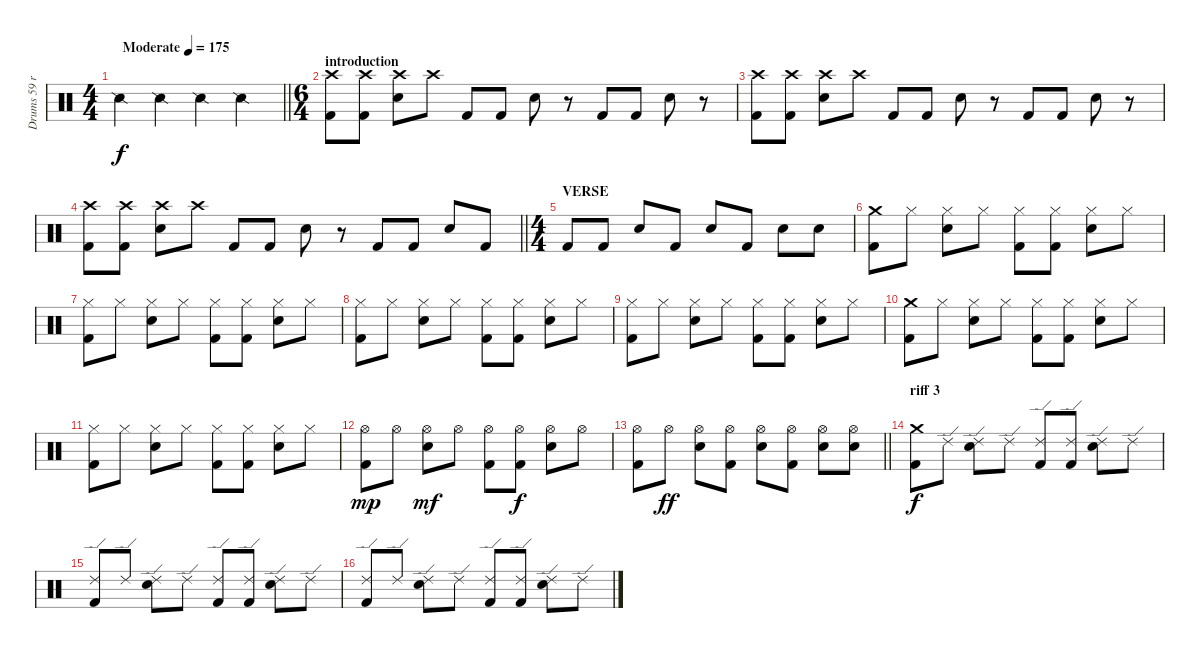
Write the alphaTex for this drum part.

\track ("Drums 59 ride" "Drums 59 r") {instrument percussion}
\staff {score}
\articulation defaults
\ts (4 4)
\tempo (175 "Moderate")
\clef neutral
\barLineRight lightlight
\ks c "Snare (side stick) 2".4{dy f} "Snare (side stick) 2".4 "Snare (side stick) 2".4 "Snare (side stick) 2".4
|
\ts (6 4)
\section ("" "introduction")
("Crash high (hit)" "Kick (hit) 2").8 ("Crash high (hit)" "Kick (hit) 2").8 ("Crash high (hit)" "Snare (hit) 2").8 "Crash high (hit)".8 "Kick (hit) 2".8 "Kick (hit) 2".8 "Snare (hit) 2".8 r.8 "Kick (hit) 2".8 "Kick (hit) 2".8 "Snare (hit) 2".8 r.8 |
("Crash high (hit)" "Kick (hit) 2").8 ("Crash high (hit)" "Kick (hit) 2").8 ("Crash high (hit)" "Snare (hit) 2").8 "Crash high (hit)".8 "Kick (hit) 2".8 "Kick (hit) 2".8 "Snare (hit) 2".8 r.8 "Kick (hit) 2".8 "Kick (hit) 2".8 "Snare (hit) 2".8 r.8 |
\barLineRight lightlight
("Crash high (hit)" "Kick (hit) 2").8 ("Crash high (hit)" "Kick (hit) 2").8 ("Crash high (hit)" "Snare (hit) 2").8 "Crash high (hit)".8 "Kick (hit) 2".8 "Kick (hit) 2".8 "Snare (hit) 2".8 r.8 "Kick (hit) 2".8 "Kick (hit) 2".8 "Snare (hit) 2".8 "Kick (hit) 2".8 |
\ts (4 4)
\section ("" "VERSE ")
"Kick (hit) 2".8 "Kick (hit) 2".8 "Snare (hit) 2".8 "Kick (hit) 2".8 "Snare (hit) 2".8 "Kick (hit) 2".8 "Snare (hit) 2".8 "Snare (hit) 2".8 |
("Crash medium (hit)" "Kick (hit) 2").8 "Hi-Hat (closed)".8 ("Hi-Hat (closed)" "Snare (hit) 2").8 "Hi-Hat (closed)".8 ("Hi-Hat (closed)" "Kick (hit) 2").8 ("Hi-Hat (closed)" "Kick (hit) 2").8 ("Hi-Hat (closed)" "Snare (hit) 2").8 "Hi-Hat (closed)".8 |
("Hi-Hat (closed)" "Kick (hit) 2").8 "Hi-Hat (closed)".8 ("Hi-Hat (closed)" "Snare (hit) 2").8 "Hi-Hat (closed)".8 ("Hi-Hat (closed)" "Kick (hit) 2").8 ("Hi-Hat (closed)" "Kick (hit) 2").8 ("Hi-Hat (closed)" "Snare (hit) 2").8 "Hi-Hat (closed)".8 |
("Hi-Hat (closed)" "Kick (hit) 2").8 "Hi-Hat (closed)".8 ("Hi-Hat (closed)" "Snare (hit) 2").8 "Hi-Hat (closed)".8 ("Hi-Hat (closed)" "Kick (hit) 2").8 ("Hi-Hat (closed)" "Kick (hit) 2").8 ("Hi-Hat (closed)" "Snare (hit) 2").8 "Hi-Hat (closed)".8 |
("Hi-Hat (closed)" "Kick (hit) 2").8 "Hi-Hat (closed)".8 ("Hi-Hat (closed)" "Snare (hit) 2").8 "Hi-Hat (closed)".8 ("Hi-Hat (closed)" "Kick (hit) 2").8 ("Hi-Hat (closed)" "Kick (hit) 2").8 ("Hi-Hat (closed)" "Snare (hit) 2").8 "Hi-Hat (closed)".8 |
("Crash medium (hit)" "Kick (hit) 2").8 "Hi-Hat (closed)".8 ("Hi-Hat (closed)" "Snare (hit) 2").8 "Hi-Hat (closed)".8 ("Hi-Hat (closed)" "Kick (hit) 2").8 ("Hi-Hat (closed)" "Kick (hit) 2").8 ("Hi-Hat (closed)" "Snare (hit) 2").8 "Hi-Hat (closed)".8 |
("Hi-Hat (closed)" "Kick (hit) 2").8 "Hi-Hat (closed)".8 ("Hi-Hat (closed)" "Snare (hit) 2").8 "Hi-Hat (closed)".8 ("Hi-Hat (closed)" "Kick (hit) 2").8 ("Hi-Hat (closed)" "Kick (hit) 2").8 ("Hi-Hat (closed)" "Snare (hit) 2").8 "Hi-Hat (closed)".8 |
("Hi-Hat (open)" "Kick (hit) 2").8{dy mp} "Hi-Hat (open)".8 ("Hi-Hat (open)" "Snare (hit) 2").8{dy mf} "Hi-Hat (open)".8 ("Hi-Hat (open)" "Kick (hit) 2").8 ("Hi-Hat (open)" "Kick (hit) 2").8{dy f} ("Hi-Hat (open)" "Snare (hit) 2").8 "Hi-Hat (open)".8 |
\barLineRight lightlight
("Hi-Hat (open)" "Kick (hit) 2").8 "Hi-Hat (open)".8{dy ff} ("Hi-Hat (open)" "Snare (hit) 2").8 ("Hi-Hat (open)" "Kick (hit) 2").8 ("Hi-Hat (open)" "Snare (hit) 2").8 ("Hi-Hat (open)" "Kick (hit) 2").8 ("Hi-Hat (open)" "Snare (hit) 2").8 ("Hi-Hat (open)" "Snare (hit) 2").8 |
\section ("" "riff 3")
("Crash medium (hit)" "Kick (hit) 2").8{dy f} "Ride (edge) 2".8 ("Ride (edge) 2" "Snare (hit) 2").8 "Ride (edge) 2".8 ("Ride (edge) 2" "Kick (hit) 2").8 ("Ride (edge) 2" "Kick (hit) 2").8 ("Ride (edge) 2" "Snare (hit) 2").8 "Ride (edge) 2".8 |
("Ride (edge) 2" "Kick (hit) 2").8 "Ride (edge) 2".8 ("Ride (edge) 2" "Snare (hit) 2").8 "Ride (edge) 2".8 ("Ride (edge) 2" "Kick (hit) 2").8 ("Ride (edge) 2" "Kick (hit) 2").8 ("Ride (edge) 2" "Snare (hit) 2").8 "Ride (edge) 2".8 |
("Ride (edge) 2" "Kick (hit) 2").8 "Ride (edge) 2".8 ("Ride (edge) 2" "Snare (hit) 2").8 "Ride (edge) 2".8 ("Ride (edge) 2" "Kick (hit) 2").8 ("Ride (edge) 2" "Kick (hit) 2").8 ("Ride (edge) 2" "Snare (hit) 2").8 "Ride (edge) 2".8
